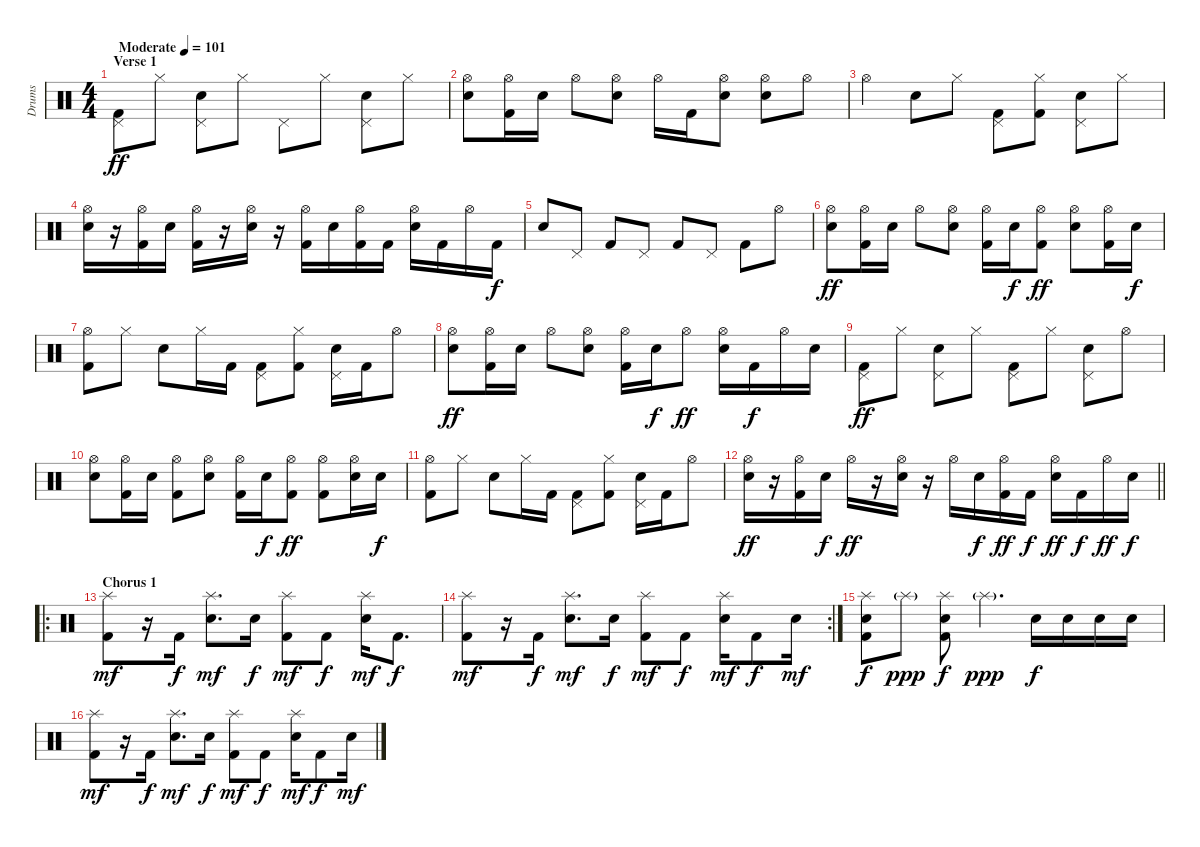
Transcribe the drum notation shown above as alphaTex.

\track ("Drums" "Drums") {instrument percussion}
\staff {score}
\articulation defaults
\ts (4 4)
\section ("" "Verse 1")
\tempo (101 "Moderate")
\clef neutral
\ks c
("Pedal Hi-Hat (hit)" "Kick (hit) 2").8{dy ff} "Hi-Hat (closed)".8 ("Pedal Hi-Hat (hit)" "Electric Snare (hit)").8 "Hi-Hat (closed)".8 "Pedal Hi-Hat (hit)".8 "Hi-Hat (closed)".8 ("Pedal Hi-Hat (hit)" "Electric Snare (hit)").8 "Hi-Hat (closed)".8 |
("Hi-Hat (open)" "Electric Snare (hit)").8 ("Hi-Hat (open)" "Kick (hit) 2").16 "Electric Snare (hit)".16 "Hi-Hat (open)".8 ("Hi-Hat (open)" "Electric Snare (hit)").8 "Hi-Hat (open)".16 "Kick (hit) 2".16 ("Hi-Hat (open)" "Electric Snare (hit)").8 ("Hi-Hat (open)" "Electric Snare (hit)").8 "Hi-Hat (open)".8 |
"Hi-Hat (open)".4 "Electric Snare (hit)".8 "Hi-Hat (closed)".8 ("Pedal Hi-Hat (hit)" "Kick (hit) 2").8 ("Hi-Hat (closed)" "Kick (hit) 2").8 ("Pedal Hi-Hat (hit)" "Electric Snare (hit)").8 "Hi-Hat (closed)".8 |
("Hi-Hat (open)" "Electric Snare (hit)").16 r.16 ("Hi-Hat (open)" "Kick (hit) 2").16 "Electric Snare (hit)".16 ("Hi-Hat (open)" "Kick (hit) 2").16 r.16 ("Hi-Hat (open)" "Electric Snare (hit)").16 r.16 ("Hi-Hat (open)" "Kick (hit) 2").16 "Electric Snare (hit)".16 ("Hi-Hat (open)" "Kick (hit) 2").16 "Kick (hit) 2".16 ("Hi-Hat (open)" "Electric Snare (hit)").16 "Kick (hit) 2".16 "Hi-Hat (open)".16 "Kick (hit) 2".16{dy f} |
"Electric Snare (hit)".8 "Pedal Hi-Hat (hit)".8 "Kick (hit) 2".8 "Pedal Hi-Hat (hit)".8 "Kick (hit) 2".8 "Pedal Hi-Hat (hit)".8 "Kick (hit) 2".8 "Hi-Hat (open)".8 |
("Hi-Hat (open)" "Electric Snare (hit)").8{dy ff} ("Hi-Hat (open)" "Kick (hit) 2").16 "Electric Snare (hit)".16 "Hi-Hat (open)".8 ("Hi-Hat (open)" "Electric Snare (hit)").8 ("Hi-Hat (open)" "Kick (hit) 2").16 "Electric Snare (hit)".16{dy f} ("Hi-Hat (open)" "Kick (hit) 2").8{dy ff} ("Hi-Hat (open)" "Electric Snare (hit)").8 ("Hi-Hat (open)" "Kick (hit) 2").16 "Electric Snare (hit)".16{dy f} |
("Hi-Hat (open)" "Kick (hit) 2").8 "Hi-Hat (closed)".8 "Electric Snare (hit)".8 "Hi-Hat (closed)".16 "Kick (hit) 2".16 ("Pedal Hi-Hat (hit)" "Kick (hit) 2").8 ("Hi-Hat (closed)" "Kick (hit) 2").8 ("Pedal Hi-Hat (hit)" "Electric Snare (hit)").16 "Kick (hit) 2".16 "Hi-Hat (open)".8 |
("Hi-Hat (open)" "Electric Snare (hit)").8{dy ff} ("Hi-Hat (open)" "Kick (hit) 2").16 "Electric Snare (hit)".16 "Hi-Hat (open)".8 ("Hi-Hat (open)" "Electric Snare (hit)").8 ("Hi-Hat (open)" "Kick (hit) 2").16 "Electric Snare (hit)".16{dy f} "Hi-Hat (open)".8{dy ff} ("Hi-Hat (open)" "Electric Snare (hit)").16 "Kick (hit) 2".16{dy f} "Hi-Hat (open)".16 "Electric Snare (hit)".16 |
("Pedal Hi-Hat (hit)" "Kick (hit) 2").8{dy ff} "Hi-Hat (closed)".8 ("Pedal Hi-Hat (hit)" "Electric Snare (hit)").8 "Hi-Hat (closed)".8 ("Pedal Hi-Hat (hit)" "Kick (hit) 2").8 "Hi-Hat (closed)".8 ("Pedal Hi-Hat (hit)" "Electric Snare (hit)").8 "Hi-Hat (open)".8 |
("Hi-Hat (open)" "Electric Snare (hit)").8 ("Hi-Hat (open)" "Kick (hit) 2").16 "Electric Snare (hit)".16 ("Hi-Hat (open)" "Kick (hit) 2").8 ("Hi-Hat (open)" "Electric Snare (hit)").8 ("Hi-Hat (open)" "Kick (hit) 2").16 "Electric Snare (hit)".16{dy f} ("Hi-Hat (open)" "Kick (hit) 2").8{dy ff} ("Hi-Hat (open)" "Kick (hit) 2").8 ("Hi-Hat (open)" "Electric Snare (hit)").16 "Electric Snare (hit)".16{dy f} |
("Hi-Hat (open)" "Kick (hit) 2").8 "Hi-Hat (closed)".8 "Electric Snare (hit)".8 "Hi-Hat (closed)".16 "Kick (hit) 2".16 ("Pedal Hi-Hat (hit)" "Kick (hit) 2").8 ("Hi-Hat (closed)" "Kick (hit) 2").8 ("Pedal Hi-Hat (hit)" "Electric Snare (hit)").16 "Kick (hit) 2".16 "Hi-Hat (open)".8 |
\barLineRight lightlight
("Hi-Hat (open)" "Electric Snare (hit)").16{dy ff} r.16 ("Hi-Hat (open)" "Kick (hit) 2").16 "Electric Snare (hit)".16{dy f} "Hi-Hat (open)".16{dy ff} r.16 ("Hi-Hat (open)" "Electric Snare (hit)").16 r.16 "Hi-Hat (open)".16 "Electric Snare (hit)".16{dy f} ("Hi-Hat (open)" "Kick (hit) 2").16{dy ff} "Kick (hit) 2".16{dy f} ("Hi-Hat (open)" "Electric Snare (hit)").16{dy ff} "Kick (hit) 2".16{dy f} "Hi-Hat (open)".16{dy ff} "Electric Snare (hit)".16{dy f} |
\ro
\section ("" "Chorus 1")
("Splash (hit)" "Kick (hit) 2").8{dy mf} r.16 "Kick (hit) 2".16{dy f} ("Splash (hit)" "Electric Snare (hit)").8{d dy mf} "Electric Snare (hit)".16{dy f} ("Splash (hit)" "Kick (hit) 2").8{dy mf} "Kick (hit) 2".8{dy f} ("Splash (hit)" "Electric Snare (hit)").16{dy mf} "Kick (hit) 2".8{d dy f} |
\rc 2
("Splash (hit)" "Kick (hit) 2").8{dy mf} r.16 "Kick (hit) 2".16{dy f} ("Splash (hit)" "Electric Snare (hit)").8{d dy mf} "Electric Snare (hit)".16{dy f} ("Splash (hit)" "Kick (hit) 2").8{dy mf} "Kick (hit) 2".8{dy f} ("Splash (hit)" "Electric Snare (hit)").16{dy mf} "Kick (hit) 2".8{dy f} "Electric Snare (hit)".16{dy mf} |
("Splash (hit)" "Electric Snare (hit)" "Kick (hit) 2").8{dy f} "Splash (hit)"{g}.8{dy ppp} ("Splash (hit)" "Electric Snare (hit)" "Kick (hit) 2").8{dy f} "Splash (hit)"{g}.4{d dy ppp} "Electric Snare (hit)".16{dy f} "Electric Snare (hit)".16 "Electric Snare (hit)".16 "Electric Snare (hit)".16 |
("Splash (hit)" "Kick (hit) 2").8{dy mf} r.16 "Kick (hit) 2".16{dy f} ("Splash (hit)" "Electric Snare (hit)").8{d dy mf} "Electric Snare (hit)".16{dy f} ("Splash (hit)" "Kick (hit) 2").8{dy mf} "Kick (hit) 2".8{dy f} ("Splash (hit)" "Electric Snare (hit)").16{dy mf} "Kick (hit) 2".8{dy f} "Electric Snare (hit)".16{dy mf}
